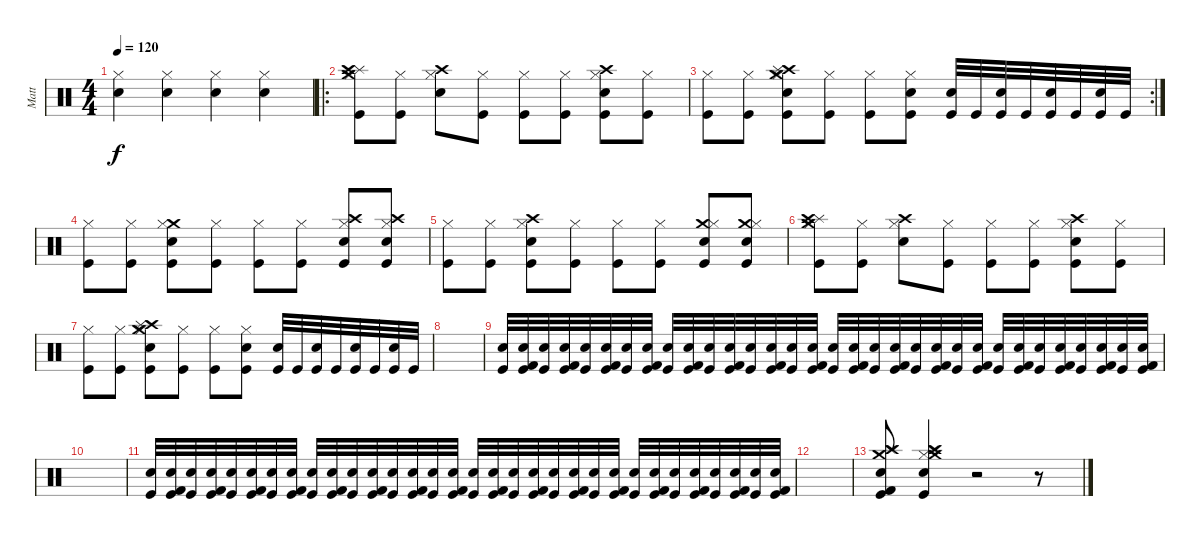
\track ("Matt" "Matt") {instrument percussion}
\staff {score}
\articulation defaults
\ts (4 4)
\tempo 120
\clef neutral
\ks c
("Electric Snare (hit)" "Hi-Hat (closed)").4{dy f} ("Electric Snare (hit)" "Hi-Hat (closed)").4 ("Electric Snare (hit)" "Hi-Hat (closed)").4 ("Electric Snare (hit)" "Hi-Hat (closed)").4 |
\ro
("Crash medium (hit)" "Splash (hit)" "Crash high (hit)" "Kick (hit)" "Hi-Hat (closed)").8 ("Hi-Hat (closed)" "Kick (hit)").8 ("Crash high (hit)" "Hi-Hat (closed)" "Electric Snare (hit)").8 ("Hi-Hat (closed)" "Kick (hit)").8 ("Hi-Hat (closed)" "Kick (hit)").8 ("Hi-Hat (closed)" "Kick (hit)").8 ("Crash high (hit)" "Electric Snare (hit)" "Hi-Hat (closed)" "Kick (hit)").8 ("Hi-Hat (closed)" "Kick (hit)").8 |
\rc 2
("Hi-Hat (closed)" "Kick (hit)").8 ("Hi-Hat (closed)" "Kick (hit)").8 ("Crash high (hit)" "Crash medium (hit)" "Hi-Hat (closed)" "Kick (hit)" "Electric Snare (hit)" "Splash (hit)").8 ("Hi-Hat (closed)" "Kick (hit)").8 ("Kick (hit)" "Hi-Hat (closed)").8 ("Electric Snare (hit)" "Hi-Hat (closed)" "Kick (hit)").8 ("Electric Snare (hit)" "Kick (hit)").32 "Kick (hit)".32 ("Electric Snare (hit)" "Kick (hit)").32 "Kick (hit)".32 ("Electric Snare (hit)" "Kick (hit)").32 "Kick (hit)".32 ("Electric Snare (hit)" "Kick (hit)").32 "Kick (hit)".32 |
("Hi-Hat (closed)" "Kick (hit)").8 ("Hi-Hat (closed)" "Kick (hit)").8 ("Crash medium (hit)" "Electric Snare (hit)" "Hi-Hat (closed)" "Kick (hit)").8 ("Hi-Hat (closed)" "Kick (hit)").8 ("Hi-Hat (closed)" "Kick (hit)").8 ("Hi-Hat (closed)" "Kick (hit)").8 ("Crash high (hit)" "Electric Snare (hit)" "Hi-Hat (closed)" "Kick (hit)").8 ("Crash high (hit)" "Electric Snare (hit)" "Hi-Hat (closed)" "Kick (hit)").8 |
("Hi-Hat (closed)" "Kick (hit)").8 ("Hi-Hat (closed)" "Kick (hit)").8 ("Crash high (hit)" "Electric Snare (hit)" "Hi-Hat (closed)" "Kick (hit)").8 ("Hi-Hat (closed)" "Kick (hit)").8 ("Hi-Hat (closed)" "Kick (hit)").8 ("Hi-Hat (closed)" "Kick (hit)").8 ("Crash medium (hit)" "Electric Snare (hit)" "Hi-Hat (closed)" "Kick (hit)").8 ("Crash medium (hit)" "Electric Snare (hit)" "Hi-Hat (closed)" "Kick (hit)").8 |
("Crash medium (hit)" "Splash (hit)" "Crash high (hit)" "Kick (hit)" "Hi-Hat (closed)").8 ("Hi-Hat (closed)" "Kick (hit)").8 ("Crash high (hit)" "Hi-Hat (closed)" "Electric Snare (hit)").8 ("Hi-Hat (closed)" "Kick (hit)").8 ("Hi-Hat (closed)" "Kick (hit)").8 ("Hi-Hat (closed)" "Kick (hit)").8 ("Crash high (hit)" "Electric Snare (hit)" "Hi-Hat (closed)" "Kick (hit)").8 ("Hi-Hat (closed)" "Kick (hit)").8 |
("Hi-Hat (closed)" "Kick (hit)").8 ("Hi-Hat (closed)" "Kick (hit)").8 ("Crash high (hit)" "Crash medium (hit)" "Hi-Hat (closed)" "Kick (hit)" "Electric Snare (hit)" "Splash (hit)").8 ("Hi-Hat (closed)" "Kick (hit)").8 ("Kick (hit)" "Hi-Hat (closed)").8 ("Electric Snare (hit)" "Hi-Hat (closed)" "Kick (hit)").8 ("Electric Snare (hit)" "Kick (hit)").32 "Kick (hit)".32 ("Electric Snare (hit)" "Kick (hit)").32 "Kick (hit)".32 ("Electric Snare (hit)" "Kick (hit)").32 "Kick (hit)".32 ("Electric Snare (hit)" "Kick (hit)").32 "Kick (hit)".32 |
|
("Electric Snare (hit)" "Kick (hit)").32 ("Electric Snare (hit)" "Kick (hit)" "Kick (hit) 2").32 ("Electric Snare (hit)" "Kick (hit)").32 ("Electric Snare (hit)" "Kick (hit)" "Kick (hit) 2").32 ("Electric Snare (hit)" "Kick (hit)").32 ("Electric Snare (hit)" "Kick (hit)" "Kick (hit) 2").32 ("Electric Snare (hit)" "Kick (hit)").32 ("Electric Snare (hit)" "Kick (hit)" "Kick (hit) 2").32 ("Electric Snare (hit)" "Kick (hit)").32 ("Electric Snare (hit)" "Kick (hit)" "Kick (hit) 2").32 ("Electric Snare (hit)" "Kick (hit)").32 ("Electric Snare (hit)" "Kick (hit)" "Kick (hit) 2").32 ("Electric Snare (hit)" "Kick (hit)").32 ("Electric Snare (hit)" "Kick (hit)" "Kick (hit) 2").32 ("Electric Snare (hit)" "Kick (hit)").32 ("Electric Snare (hit)" "Kick (hit)" "Kick (hit) 2").32 ("Electric Snare (hit)" "Kick (hit)").32 ("Electric Snare (hit)" "Kick (hit)" "Kick (hit) 2").32 ("Electric Snare (hit)" "Kick (hit)").32 ("Electric Snare (hit)" "Kick (hit)" "Kick (hit) 2").32 ("Electric Snare (hit)" "Kick (hit)").32 ("Electric Snare (hit)" "Kick (hit)" "Kick (hit) 2").32 ("Electric Snare (hit)" "Kick (hit)").32 ("Electric Snare (hit)" "Kick (hit)" "Kick (hit) 2").32 ("Electric Snare (hit)" "Kick (hit)").32 ("Electric Snare (hit)" "Kick (hit)" "Kick (hit) 2").32 ("Electric Snare (hit)" "Kick (hit)").32 ("Electric Snare (hit)" "Kick (hit)" "Kick (hit) 2").32 ("Electric Snare (hit)" "Kick (hit)").32 ("Electric Snare (hit)" "Kick (hit)" "Kick (hit) 2").32 ("Electric Snare (hit)" "Kick (hit)").32 ("Electric Snare (hit)" "Kick (hit)" "Kick (hit) 2").32 |
|
("Electric Snare (hit)" "Kick (hit)").32 ("Electric Snare (hit)" "Kick (hit)" "Kick (hit) 2").32 ("Electric Snare (hit)" "Kick (hit)").32 ("Electric Snare (hit)" "Kick (hit)" "Kick (hit) 2").32 ("Electric Snare (hit)" "Kick (hit)").32 ("Electric Snare (hit)" "Kick (hit)" "Kick (hit) 2").32 ("Electric Snare (hit)" "Kick (hit)").32 ("Electric Snare (hit)" "Kick (hit)" "Kick (hit) 2").32 ("Electric Snare (hit)" "Kick (hit)").32 ("Electric Snare (hit)" "Kick (hit)" "Kick (hit) 2").32 ("Electric Snare (hit)" "Kick (hit)").32 ("Electric Snare (hit)" "Kick (hit)" "Kick (hit) 2").32 ("Electric Snare (hit)" "Kick (hit)").32 ("Electric Snare (hit)" "Kick (hit)" "Kick (hit) 2").32 ("Electric Snare (hit)" "Kick (hit)").32 ("Electric Snare (hit)" "Kick (hit)" "Kick (hit) 2").32 ("Electric Snare (hit)" "Kick (hit)").32 ("Electric Snare (hit)" "Kick (hit)" "Kick (hit) 2").32 ("Electric Snare (hit)" "Kick (hit)").32 ("Electric Snare (hit)" "Kick (hit)" "Kick (hit) 2").32 ("Electric Snare (hit)" "Kick (hit)").32 ("Electric Snare (hit)" "Kick (hit)" "Kick (hit) 2").32 ("Electric Snare (hit)" "Kick (hit)").32 ("Electric Snare (hit)" "Kick (hit)" "Kick (hit) 2").32 ("Electric Snare (hit)" "Kick (hit)").32 ("Electric Snare (hit)" "Kick (hit)" "Kick (hit) 2").32 ("Electric Snare (hit)" "Kick (hit)").32 ("Electric Snare (hit)" "Kick (hit)" "Kick (hit) 2").32 ("Electric Snare (hit)" "Kick (hit)").32 ("Electric Snare (hit)" "Kick (hit)" "Kick (hit) 2").32 ("Electric Snare (hit)" "Kick (hit)").32 ("Electric Snare (hit)" "Kick (hit)" "Kick (hit) 2").32 |
|
("Kick (hit) 2" "Splash (hit)" "Electric Snare (hit)" "Kick (hit)" "Crash medium (hit)" "Crash high (hit)").8 ("Hi-Hat (closed)" "Splash (hit)" "Electric Snare (hit)" "Kick (hit)" "Crash medium (hit)" "Crash high (hit)").4 r.2 r.8
